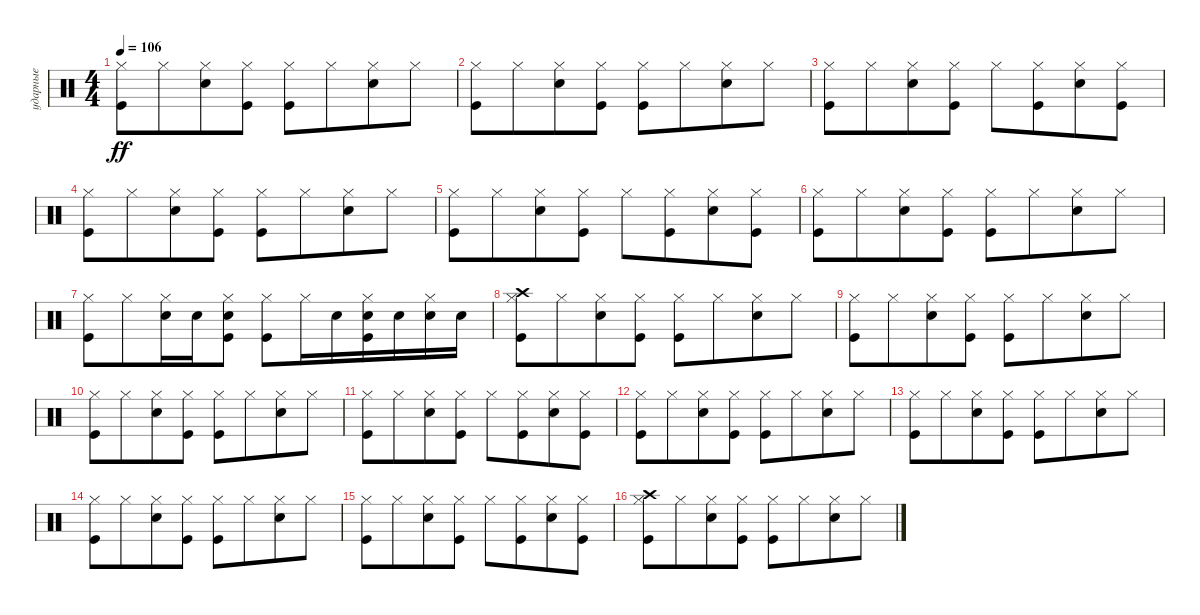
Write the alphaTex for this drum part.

\track ("ударные" "ударные") {instrument percussion}
\staff {score}
\articulation defaults
\ts (4 4)
\tempo 106
\clef neutral
\ks aminor
("Hi-Hat (closed)" "Kick (hit)").8{dy ff} "Hi-Hat (closed)".8{beam merge} ("Hi-Hat (closed)" "Snare (hit) 2").8 ("Hi-Hat (closed)" "Kick (hit)").8 ("Hi-Hat (closed)" "Kick (hit)").8 "Hi-Hat (closed)".8{beam merge} ("Hi-Hat (closed)" "Snare (hit) 2").8 "Hi-Hat (closed)".8 |
("Hi-Hat (closed)" "Kick (hit)").8 "Hi-Hat (closed)".8{beam merge} ("Hi-Hat (closed)" "Snare (hit) 2").8 ("Hi-Hat (closed)" "Kick (hit)").8 ("Hi-Hat (closed)" "Kick (hit)").8 "Hi-Hat (closed)".8{beam merge} ("Hi-Hat (closed)" "Snare (hit) 2").8 "Hi-Hat (closed)".8 |
("Hi-Hat (closed)" "Kick (hit)").8 "Hi-Hat (closed)".8{beam merge} ("Hi-Hat (closed)" "Snare (hit) 2").8 ("Hi-Hat (closed)" "Kick (hit)").8 "Hi-Hat (closed)".8 ("Hi-Hat (closed)" "Kick (hit)").8{beam merge} ("Hi-Hat (closed)" "Snare (hit) 2").8 ("Hi-Hat (closed)" "Kick (hit)").8 |
("Hi-Hat (closed)" "Kick (hit)").8 "Hi-Hat (closed)".8{beam merge} ("Hi-Hat (closed)" "Snare (hit) 2").8 ("Hi-Hat (closed)" "Kick (hit)").8 ("Hi-Hat (closed)" "Kick (hit)").8 "Hi-Hat (closed)".8{beam merge} ("Hi-Hat (closed)" "Snare (hit) 2").8 "Hi-Hat (closed)".8 |
("Hi-Hat (closed)" "Kick (hit)").8 "Hi-Hat (closed)".8{beam merge} ("Hi-Hat (closed)" "Snare (hit) 2").8 ("Hi-Hat (closed)" "Kick (hit)").8 "Hi-Hat (closed)".8 ("Hi-Hat (closed)" "Kick (hit)").8{beam merge} ("Hi-Hat (closed)" "Snare (hit) 2").8 ("Hi-Hat (closed)" "Kick (hit)").8 |
("Hi-Hat (closed)" "Kick (hit)").8 "Hi-Hat (closed)".8{beam merge} ("Hi-Hat (closed)" "Snare (hit) 2").8 ("Hi-Hat (closed)" "Kick (hit)").8 ("Hi-Hat (closed)" "Kick (hit)").8 "Hi-Hat (closed)".8{beam merge} ("Hi-Hat (closed)" "Snare (hit) 2").8 "Hi-Hat (closed)".8 |
("Hi-Hat (closed)" "Kick (hit)").8 "Hi-Hat (closed)".8{beam merge} ("Hi-Hat (closed)" "Snare (hit) 2").16{beam merge} "Snare (hit) 2".16 ("Hi-Hat (closed)" "Snare (hit) 2" "Kick (hit)").8 ("Hi-Hat (closed)" "Kick (hit)").8 "Hi-Hat (closed)".16 "Snare (hit) 2".16{beam merge} ("Hi-Hat (closed)" "Snare (hit) 2" "Kick (hit)").16{beam merge} "Snare (hit) 2".16 ("Hi-Hat (closed)" "Snare (hit) 2").16 "Snare (hit) 2".16 |
("Hi-Hat (closed)" "Crash high (hit)" "Kick (hit)").8 "Hi-Hat (closed)".8{beam merge} ("Hi-Hat (closed)" "Snare (hit) 2").8 ("Hi-Hat (closed)" "Kick (hit)").8 ("Hi-Hat (closed)" "Kick (hit)").8 "Hi-Hat (closed)".8{beam merge} ("Hi-Hat (closed)" "Snare (hit) 2").8 "Hi-Hat (closed)".8 |
("Hi-Hat (closed)" "Kick (hit)").8 "Hi-Hat (closed)".8{beam merge} ("Hi-Hat (closed)" "Snare (hit) 2").8 ("Hi-Hat (closed)" "Kick (hit)").8 ("Hi-Hat (closed)" "Kick (hit)").8 "Hi-Hat (closed)".8{beam merge} ("Hi-Hat (closed)" "Snare (hit) 2").8 "Hi-Hat (closed)".8 |
("Hi-Hat (closed)" "Kick (hit)").8 "Hi-Hat (closed)".8{beam merge} ("Hi-Hat (closed)" "Snare (hit) 2").8 ("Hi-Hat (closed)" "Kick (hit)").8 ("Hi-Hat (closed)" "Kick (hit)").8 "Hi-Hat (closed)".8{beam merge} ("Hi-Hat (closed)" "Snare (hit) 2").8 "Hi-Hat (closed)".8 |
("Hi-Hat (closed)" "Kick (hit)").8 "Hi-Hat (closed)".8{beam merge} ("Hi-Hat (closed)" "Snare (hit) 2").8 ("Hi-Hat (closed)" "Kick (hit)").8 "Hi-Hat (closed)".8 ("Hi-Hat (closed)" "Kick (hit)").8{beam merge} ("Hi-Hat (closed)" "Snare (hit) 2").8 ("Hi-Hat (closed)" "Kick (hit)").8 |
("Hi-Hat (closed)" "Kick (hit)").8 "Hi-Hat (closed)".8{beam merge} ("Hi-Hat (closed)" "Snare (hit) 2").8 ("Hi-Hat (closed)" "Kick (hit)").8 ("Hi-Hat (closed)" "Kick (hit)").8 "Hi-Hat (closed)".8{beam merge} ("Hi-Hat (closed)" "Snare (hit) 2").8 "Hi-Hat (closed)".8 |
("Hi-Hat (closed)" "Kick (hit)").8 "Hi-Hat (closed)".8{beam merge} ("Hi-Hat (closed)" "Snare (hit) 2").8 ("Hi-Hat (closed)" "Kick (hit)").8 ("Hi-Hat (closed)" "Kick (hit)").8 "Hi-Hat (closed)".8{beam merge} ("Hi-Hat (closed)" "Snare (hit) 2").8 "Hi-Hat (closed)".8 |
("Hi-Hat (closed)" "Kick (hit)").8 "Hi-Hat (closed)".8{beam merge} ("Hi-Hat (closed)" "Snare (hit) 2").8 ("Hi-Hat (closed)" "Kick (hit)").8 ("Hi-Hat (closed)" "Kick (hit)").8 "Hi-Hat (closed)".8{beam merge} ("Hi-Hat (closed)" "Snare (hit) 2").8 "Hi-Hat (closed)".8 |
("Hi-Hat (closed)" "Kick (hit)").8 "Hi-Hat (closed)".8{beam merge} ("Hi-Hat (closed)" "Snare (hit) 2").8 ("Hi-Hat (closed)" "Kick (hit)").8 "Hi-Hat (closed)".8 ("Hi-Hat (closed)" "Kick (hit)").8{beam merge} ("Hi-Hat (closed)" "Snare (hit) 2").8 ("Hi-Hat (closed)" "Kick (hit)").8 |
("Hi-Hat (closed)" "Crash high (hit)" "Kick (hit)").8 "Hi-Hat (closed)".8{beam merge} ("Hi-Hat (closed)" "Snare (hit) 2").8 ("Hi-Hat (closed)" "Kick (hit)").8 ("Hi-Hat (closed)" "Kick (hit)").8 "Hi-Hat (closed)".8{beam merge} ("Hi-Hat (closed)" "Snare (hit) 2").8 "Hi-Hat (closed)".8
